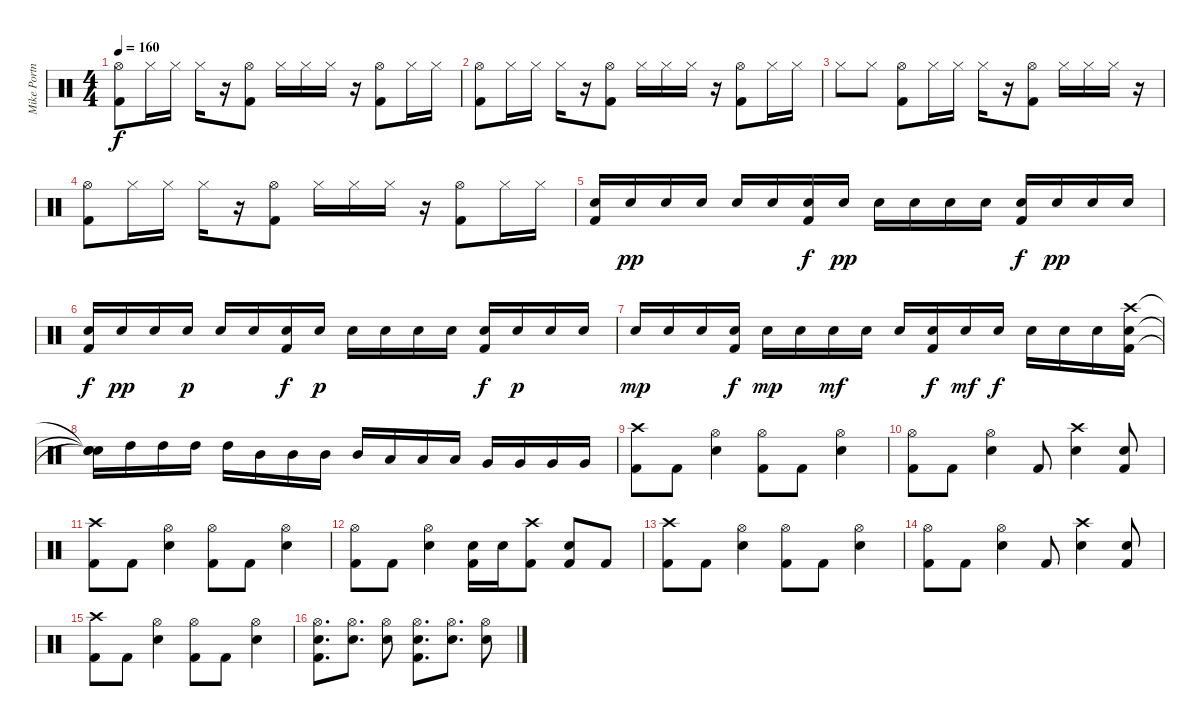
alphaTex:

\track ("Mike Portnoy" "Mike Portn") {instrument percussion}
\staff {score}
\articulation defaults
\ts (4 4)
\tempo 160
\clef neutral
\ks c
("Hi-Hat (open)" "Kick (hit) 2").8{dy f} "Hi-Hat (closed)".16 "Hi-Hat (closed)".16 "Hi-Hat (closed)".16 r.16 ("Hi-Hat (open)" "Kick (hit) 2").8 "Hi-Hat (closed)".16 "Hi-Hat (closed)".16 "Hi-Hat (closed)".16 r.16 ("Hi-Hat (open)" "Kick (hit) 2").8 "Hi-Hat (closed)".16 "Hi-Hat (closed)".16 |
("Hi-Hat (open)" "Kick (hit) 2").8 "Hi-Hat (closed)".16 "Hi-Hat (closed)".16 "Hi-Hat (closed)".16 r.16 ("Hi-Hat (open)" "Kick (hit) 2").8 "Hi-Hat (closed)".16 "Hi-Hat (closed)".16 "Hi-Hat (closed)".16 r.16 ("Hi-Hat (open)" "Kick (hit) 2").8 "Hi-Hat (closed)".16 "Hi-Hat (closed)".16 |
"Hi-Hat (closed)".8 "Hi-Hat (closed)".8 ("Hi-Hat (open)" "Kick (hit) 2").8 "Hi-Hat (closed)".16 "Hi-Hat (closed)".16 "Hi-Hat (closed)".16 r.16 ("Hi-Hat (open)" "Kick (hit) 2").8 "Hi-Hat (closed)".16 "Hi-Hat (closed)".16 "Hi-Hat (closed)".16 r.16 |
("Hi-Hat (open)" "Kick (hit) 2").8 "Hi-Hat (closed)".16 "Hi-Hat (closed)".16 "Hi-Hat (closed)".16 r.16 ("Hi-Hat (open)" "Kick (hit) 2").8 "Hi-Hat (closed)".16 "Hi-Hat (closed)".16 "Hi-Hat (closed)".16 r.16 ("Hi-Hat (open)" "Kick (hit) 2").8 "Hi-Hat (closed)".16 "Hi-Hat (closed)".16 |
("Electric Snare (hit)" "Kick (hit) 2").16 "Electric Snare (hit)".16{dy pp} "Electric Snare (hit)".16 "Electric Snare (hit)".16 "Electric Snare (hit)".16 "Electric Snare (hit)".16 ("Electric Snare (hit)" "Kick (hit) 2").16{dy f} "Electric Snare (hit)".16{dy pp} "Electric Snare (hit)".16 "Electric Snare (hit)".16 "Electric Snare (hit)".16 "Electric Snare (hit)".16 ("Electric Snare (hit)" "Kick (hit) 2").16{dy f} "Electric Snare (hit)".16{dy pp} "Electric Snare (hit)".16 "Electric Snare (hit)".16 |
("Electric Snare (hit)" "Kick (hit) 2").16{dy f} "Electric Snare (hit)".16{dy pp} "Electric Snare (hit)".16 "Electric Snare (hit)".16{dy p} "Electric Snare (hit)".16 "Electric Snare (hit)".16 ("Electric Snare (hit)" "Kick (hit) 2").16{dy f} "Electric Snare (hit)".16{dy p} "Electric Snare (hit)".16 "Electric Snare (hit)".16 "Electric Snare (hit)".16 "Electric Snare (hit)".16 ("Electric Snare (hit)" "Kick (hit) 2").16{dy f} "Electric Snare (hit)".16{dy p} "Electric Snare (hit)".16 "Electric Snare (hit)".16 |
"Electric Snare (hit)".16{dy mp} "Electric Snare (hit)".16 "Electric Snare (hit)".16 ("Electric Snare (hit)" "Kick (hit) 2").16{dy f} "Electric Snare (hit)".16{dy mp} "Electric Snare (hit)".16 "Electric Snare (hit)".16{dy mf} "Electric Snare (hit)".16 "Electric Snare (hit)".16 ("Electric Snare (hit)" "Kick (hit) 2").16{dy f} "Electric Snare (hit)".16{dy mf} "Electric Snare (hit)".16{dy f} "Electric Snare (hit)".16 "Electric Snare (hit)".16 "Electric Snare (hit)".16 ("Electric Snare (hit)" "Kick (hit) 2" "Crash high (hit)").16 |
("Electric Snare (hit)"{t} "Snare (hit)"{t} "Snare (hit)"{t}).16 "High Tom (hit)".16 "High Tom (hit)".16 "High Tom (hit)".16 "High Tom (hit)".16 "Mid Tom (hit)".16 "Mid Tom (hit)".16 "Mid Tom (hit)".16 "Mid Tom (hit)".16 "Low Tom (hit)".16 "Low Tom (hit)".16 "Low Tom (hit)".16 "Very Low Tom (hit)".16 "Very Low Tom (hit)".16 "Very Low Tom (hit)".16 "Very Low Tom (hit)".16 |
("Kick (hit) 2" "Crash high (hit)").8 "Kick (hit) 2".8 ("Electric Snare (hit)" "Hi-Hat (open)").4 ("Kick (hit) 2" "Hi-Hat (open)").8 "Kick (hit) 2".8 ("Electric Snare (hit)" "Hi-Hat (open)").4 |
("Kick (hit) 2" "Hi-Hat (open)").8 "Kick (hit) 2".8 ("Electric Snare (hit)" "Hi-Hat (open)").4 "Kick (hit) 2".8 ("Electric Snare (hit)" "Crash high (hit)").4 ("Kick (hit) 2" "Electric Snare (hit)").8 |
("Kick (hit) 2" "Crash high (hit)").8 "Kick (hit) 2".8 ("Electric Snare (hit)" "Hi-Hat (open)").4 ("Kick (hit) 2" "Hi-Hat (open)").8 "Kick (hit) 2".8 ("Electric Snare (hit)" "Hi-Hat (open)").4 |
("Kick (hit) 2" "Hi-Hat (open)").8 "Kick (hit) 2".8 ("Electric Snare (hit)" "Hi-Hat (open)").4 ("Kick (hit) 2" "Electric Snare (hit)").16 "Electric Snare (hit)".16 ("Kick (hit) 2" "Crash high (hit)").8 ("Kick (hit) 2" "Electric Snare (hit)").8 "Kick (hit) 2".8 |
("Kick (hit) 2" "Crash high (hit)").8 "Kick (hit) 2".8 ("Electric Snare (hit)" "Hi-Hat (open)").4 ("Kick (hit) 2" "Hi-Hat (open)").8 "Kick (hit) 2".8 ("Electric Snare (hit)" "Hi-Hat (open)").4 |
("Kick (hit) 2" "Hi-Hat (open)").8 "Kick (hit) 2".8 ("Electric Snare (hit)" "Hi-Hat (open)").4 "Kick (hit) 2".8 ("Electric Snare (hit)" "Crash high (hit)").4 ("Kick (hit) 2" "Electric Snare (hit)").8 |
("Kick (hit) 2" "Crash high (hit)").8 "Kick (hit) 2".8 ("Electric Snare (hit)" "Hi-Hat (open)").4 ("Kick (hit) 2" "Hi-Hat (open)").8 "Kick (hit) 2".8 ("Electric Snare (hit)" "Hi-Hat (open)").4 |
("Electric Snare (hit)" "Kick (hit) 2" "Hi-Hat (open)").8{d} ("Electric Snare (hit)" "Hi-Hat (open)").8{d} ("Electric Snare (hit)" "Hi-Hat (open)").8 ("Electric Snare (hit)" "Kick (hit) 2" "Hi-Hat (open)").8{d} ("Electric Snare (hit)" "Hi-Hat (open)").8{d} ("Electric Snare (hit)" "Hi-Hat (open)").8
